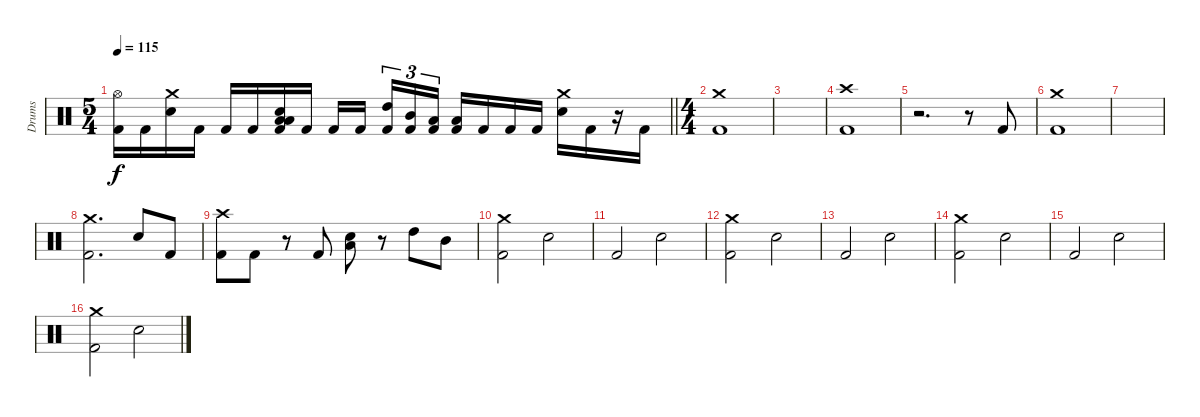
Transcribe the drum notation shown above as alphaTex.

\track ("Drums" "Drums") {instrument percussion}
\staff {score}
\articulation defaults
\ts (5 4)
\tempo 115
\clef neutral
\barLineRight lightlight
\ks c
("Hi-Hat (open)" "Kick (hit) 2").16{dy f volume 16} "Kick (hit) 2".16 ("Crash medium (hit)" "Electric Snare (hit)").16 "Kick (hit) 2".16 "Kick (hit) 2".16 "Kick (hit) 2".16 ("Electric Snare (hit)" "Low Floor Tom (hit)" "Low Tom (hit)" "Kick (hit) 2").16 "Kick (hit) 2".16 "Kick (hit) 2".16 "Kick (hit) 2".16{beam splitsecondary} ("High Tom (hit)" "Kick (hit) 2").16{tu (3 2)} ("Mid Tom (hit)" "Kick (hit) 2").16{tu (3 2)} ("Low Tom (hit)" "Kick (hit) 2").16{tu (3 2)} ("Low Floor Tom (hit)" "Kick (hit) 2").16 "Kick (hit) 2".16 "Kick (hit) 2".16 "Kick (hit) 2".16 ("Crash medium (hit)" "Electric Snare (hit)").16 "Kick (hit) 2".16 r.16 "Kick (hit) 2".16 |
\ts (4 4)
\section ("" "")
("Crash medium (hit)" "Kick (hit) 2").1 |
|
("Crash high (hit)" "Kick (hit) 2").1 |
r.2{d} r.8 "Kick (hit) 2".8 |
("Crash medium (hit)" "Kick (hit) 2").1 |
|
("Crash medium (hit)" "Kick (hit) 2").2{d} "Electric Snare (hit)".8 "Kick (hit) 2".8 |
("Crash high (hit)" "Kick (hit) 2").8 "Kick (hit) 2".8 r.8 "Kick (hit) 2".8 ("Low Tom (hit)" "Electric Snare (hit)").8 r.8 "High Tom (hit)".8 "Mid Tom (hit)".8 |
("Crash medium (hit)" "Kick (hit) 2").2 "Electric Snare (hit)".2 |
"Kick (hit) 2".2 "Electric Snare (hit)".2 |
("Crash medium (hit)" "Kick (hit) 2").2 "Electric Snare (hit)".2 |
"Kick (hit) 2".2 "Electric Snare (hit)".2 |
("Crash medium (hit)" "Kick (hit) 2").2 "Electric Snare (hit)".2 |
"Kick (hit) 2".2 "Electric Snare (hit)".2 |
("Crash medium (hit)" "Kick (hit) 2").2 "Electric Snare (hit)".2
